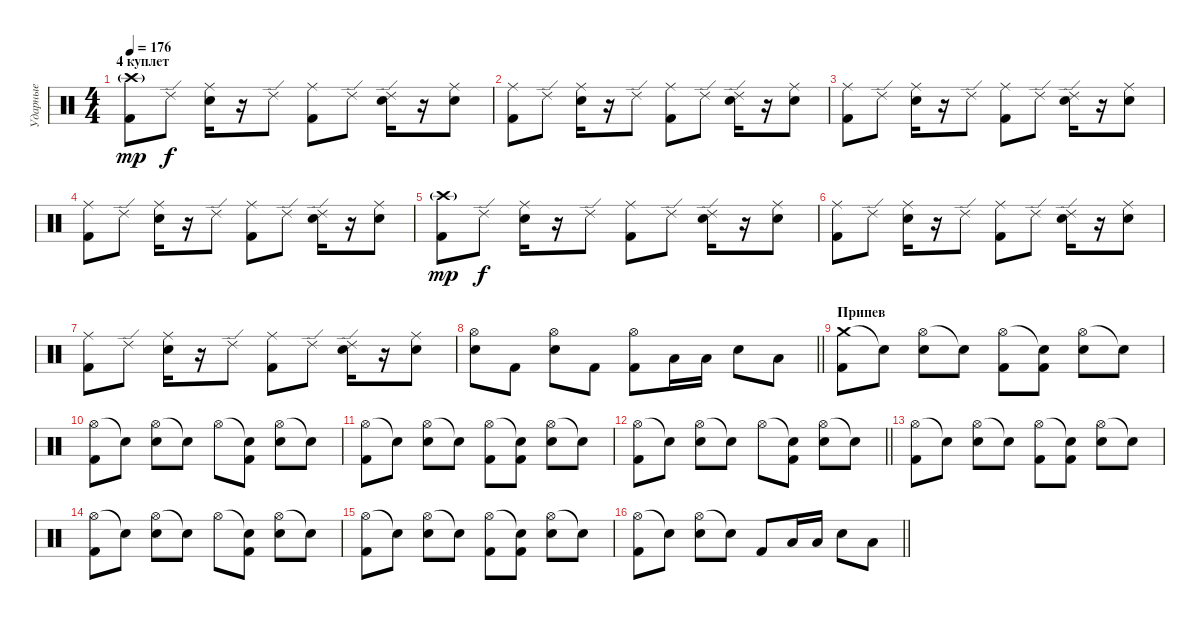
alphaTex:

\track ("Ударные" "Ударные") {instrument percussion}
\staff {score}
\articulation defaults
\ts (4 4)
\section ("" "4 куплет")
\tempo 176
\clef neutral
\ks c
("Crash high (hit)"{g} "Kick (hit) 2").8{dy mp} "Ride (edge) 2".8{dy f} ("Ride (middle)" "Snare (hit) 2").16 r.16 "Ride (edge) 2".8 ("Ride (middle)" "Kick (hit) 2").8 "Ride (edge) 2".8 ("Ride (edge) 2" "Snare (hit) 2").16 r.16 ("Ride (middle)" "Snare (hit) 2").8 |
("Ride (middle)" "Kick (hit) 2").8 "Ride (edge) 2".8 ("Ride (middle)" "Snare (hit) 2").16 r.16 "Ride (edge) 2".8 ("Ride (middle)" "Kick (hit) 2").8 "Ride (edge) 2".8 ("Ride (edge) 2" "Snare (hit) 2").16 r.16 ("Ride (middle)" "Snare (hit) 2").8 |
("Ride (middle)" "Kick (hit) 2").8 "Ride (edge) 2".8 ("Ride (middle)" "Snare (hit) 2").16 r.16 "Ride (edge) 2".8 ("Ride (middle)" "Kick (hit) 2").8 "Ride (edge) 2".8 ("Ride (edge) 2" "Snare (hit) 2").16 r.16 ("Ride (middle)" "Snare (hit) 2").8 |
("Ride (middle)" "Kick (hit) 2").8 "Ride (edge) 2".8 ("Ride (middle)" "Snare (hit) 2").16 r.16 "Ride (edge) 2".8 ("Ride (middle)" "Kick (hit) 2").8 "Ride (edge) 2".8 ("Ride (edge) 2" "Snare (hit) 2").16 r.16 ("Ride (middle)" "Snare (hit) 2").8 |
("Crash high (hit)"{g} "Kick (hit) 2").8{dy mp} "Ride (edge) 2".8{dy f} ("Ride (middle)" "Snare (hit) 2").16 r.16 "Ride (edge) 2".8 ("Ride (middle)" "Kick (hit) 2").8 "Ride (edge) 2".8 ("Ride (edge) 2" "Snare (hit) 2").16 r.16 ("Ride (middle)" "Snare (hit) 2").8 |
("Ride (middle)" "Kick (hit) 2").8 "Ride (edge) 2".8 ("Ride (middle)" "Snare (hit) 2").16 r.16 "Ride (edge) 2".8 ("Ride (middle)" "Kick (hit) 2").8 "Ride (edge) 2".8 ("Ride (edge) 2" "Snare (hit) 2").16 r.16 ("Ride (middle)" "Snare (hit) 2").8 |
("Ride (middle)" "Kick (hit) 2").8 "Ride (edge) 2".8 ("Ride (middle)" "Snare (hit) 2").16 r.16 "Ride (edge) 2".8 ("Ride (middle)" "Kick (hit) 2").8 "Ride (edge) 2".8 ("Ride (edge) 2" "Snare (hit) 2").16 r.16 ("Ride (middle)" "Snare (hit) 2").8 |
\barLineRight lightlight
("Hi-Hat (open)" "Snare (hit) 2").8 "Kick (hit) 2".8 ("Hi-Hat (open)" "Snare (hit) 2").8 "Kick (hit) 2".8 ("Hi-Hat (open)" "Kick (hit) 2").8 "Low Tom (hit)".16 "Low Tom (hit)".16 "Snare (hit) 2".8 "Low Floor Tom (hit)".8 |
\section ("" "Припев")
("Crash medium (hit)" "Kick (hit) 2").8 "Snare (hit)"{t}.8 ("Hi-Hat (open)" "Snare (hit) 2").8 "Snare (hit)"{t}.8 ("Hi-Hat (open)" "Kick (hit) 2").8 ("Snare (hit)"{t} "Kick (hit) 2").8 ("Hi-Hat (open)" "Snare (hit) 2").8 "Snare (hit)"{t}.8 |
("Hi-Hat (open)" "Kick (hit) 2").8 "Snare (hit)"{t}.8 ("Hi-Hat (open)" "Snare (hit) 2").8 "Snare (hit)"{t}.8 "Hi-Hat (open)".8 ("Snare (hit)"{t} "Kick (hit) 2").8 ("Hi-Hat (open)" "Snare (hit) 2").8 "Snare (hit)"{t}.8 |
("Hi-Hat (open)" "Kick (hit) 2").8 "Snare (hit)"{t}.8 ("Hi-Hat (open)" "Snare (hit) 2").8 "Snare (hit)"{t}.8 ("Hi-Hat (open)" "Kick (hit) 2").8 ("Snare (hit)"{t} "Kick (hit) 2").8 ("Hi-Hat (open)" "Snare (hit) 2").8 "Snare (hit)"{t}.8 |
\barLineRight lightlight
("Hi-Hat (open)" "Kick (hit) 2").8 "Snare (hit)"{t}.8 ("Hi-Hat (open)" "Snare (hit) 2").8 "Snare (hit)"{t}.8 "Hi-Hat (open)".8 ("Snare (hit)"{t} "Kick (hit) 2").8 ("Hi-Hat (open)" "Snare (hit) 2").8 "Snare (hit)"{t}.8 |
("Hi-Hat (open)" "Kick (hit) 2").8 "Snare (hit)"{t}.8 ("Hi-Hat (open)" "Snare (hit) 2").8 "Snare (hit)"{t}.8 ("Hi-Hat (open)" "Kick (hit) 2").8 ("Snare (hit)"{t} "Kick (hit) 2").8 ("Hi-Hat (open)" "Snare (hit) 2").8 "Snare (hit)"{t}.8 |
("Hi-Hat (open)" "Kick (hit) 2").8 "Snare (hit)"{t}.8 ("Hi-Hat (open)" "Snare (hit) 2").8 "Snare (hit)"{t}.8 "Hi-Hat (open)".8 ("Snare (hit)"{t} "Kick (hit) 2").8 ("Hi-Hat (open)" "Snare (hit) 2").8 "Snare (hit)"{t}.8 |
("Hi-Hat (open)" "Kick (hit) 2").8 "Snare (hit)"{t}.8 ("Hi-Hat (open)" "Snare (hit) 2").8 "Snare (hit)"{t}.8 ("Hi-Hat (open)" "Kick (hit) 2").8 ("Snare (hit)"{t} "Kick (hit) 2").8 ("Hi-Hat (open)" "Snare (hit) 2").8 "Snare (hit)"{t}.8 |
\barLineRight lightlight
("Hi-Hat (open)" "Kick (hit) 2").8 "Snare (hit)"{t}.8 ("Hi-Hat (open)" "Snare (hit) 2").8 "Snare (hit)"{t}.8 "Kick (hit) 2".8 "Low Tom (hit)".16 "Low Tom (hit)".16 "Snare (hit) 2".8 "Low Floor Tom (hit)".8
